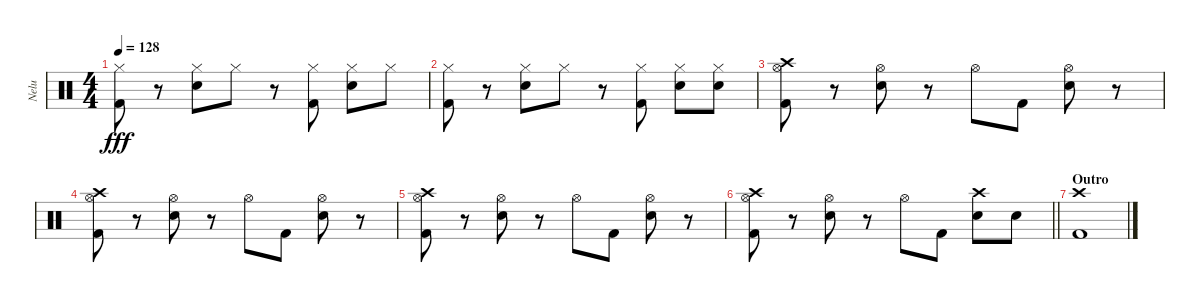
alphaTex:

\track ("Nelu" "Nelu") {instrument percussion}
\staff {score}
\articulation defaults
\ts (4 4)
\tempo 128
\clef neutral
\ks c
("Kick (hit) 2" "Hi-Hat (closed)").8{dy fff} r.8 ("Electric Snare (hit)" "Hi-Hat (closed)").8 "Hi-Hat (closed)".8 r.8 ("Hi-Hat (closed)" "Kick (hit) 2").8 ("Hi-Hat (closed)" "Electric Snare (hit)").8 "Hi-Hat (closed)".8 |
("Kick (hit) 2" "Hi-Hat (closed)").8 r.8 ("Electric Snare (hit)" "Hi-Hat (closed)").8 "Hi-Hat (closed)".8 r.8 ("Hi-Hat (closed)" "Kick (hit) 2").8 ("Hi-Hat (closed)" "Electric Snare (hit)").8 ("Hi-Hat (closed)" "Electric Snare (hit)").8 |
("Kick (hit) 2" "Crash high (hit)" "Hi-Hat (open)").8 r.8 ("Electric Snare (hit)" "Hi-Hat (open)").8 r.8 "Hi-Hat (open)".8 "Kick (hit) 2".8 ("Hi-Hat (open)" "Electric Snare (hit)").8 r.8 |
("Kick (hit) 2" "Crash high (hit)" "Hi-Hat (open)").8 r.8 ("Electric Snare (hit)" "Hi-Hat (open)").8 r.8 "Hi-Hat (open)".8 "Kick (hit) 2".8 ("Hi-Hat (open)" "Electric Snare (hit)").8 r.8 |
("Kick (hit) 2" "Crash high (hit)" "Hi-Hat (open)").8 r.8 ("Electric Snare (hit)" "Hi-Hat (open)").8 r.8 "Hi-Hat (open)".8 "Kick (hit) 2".8 ("Hi-Hat (open)" "Electric Snare (hit)").8 r.8 |
\barLineRight lightlight
("Kick (hit) 2" "Crash high (hit)" "Hi-Hat (open)").8 r.8 ("Electric Snare (hit)" "Hi-Hat (open)").8 r.8 "Hi-Hat (open)".8 "Kick (hit) 2".8 ("Electric Snare (hit)" "Crash high (hit)").8 "Electric Snare (hit)".8 |
\section ("" "Outro")
("Kick (hit) 2" "Crash high (hit)").1
